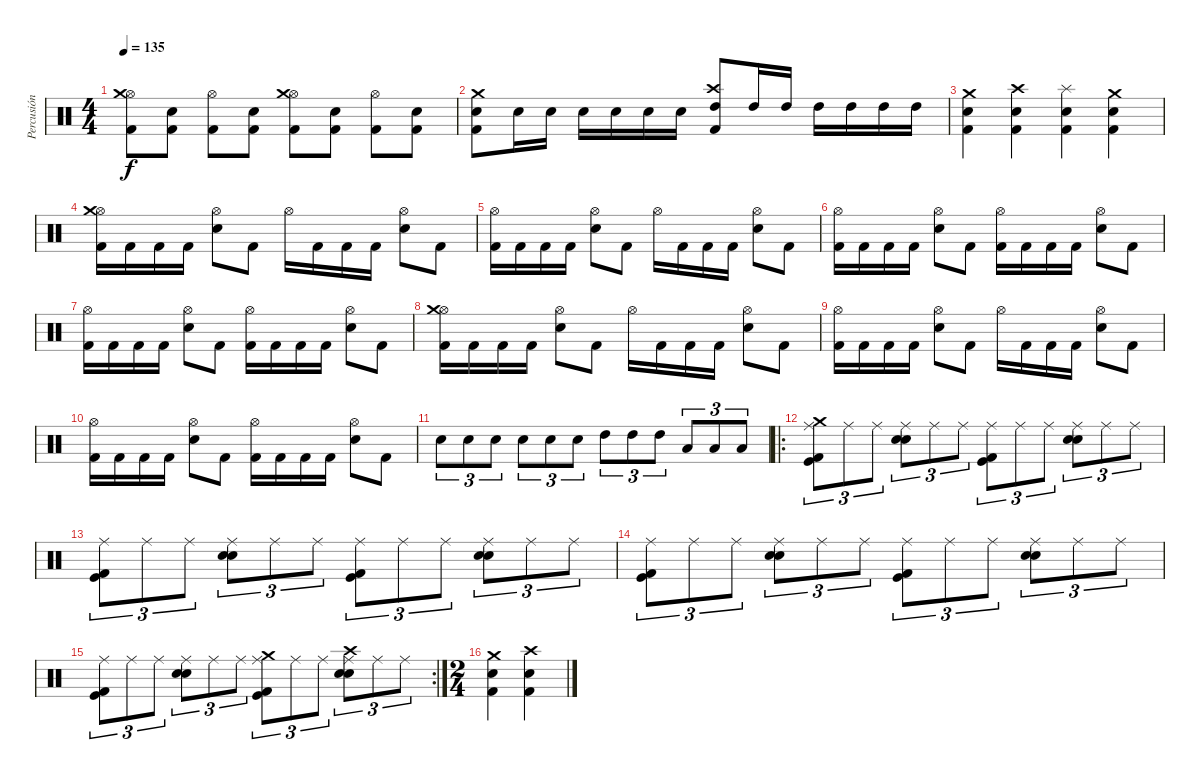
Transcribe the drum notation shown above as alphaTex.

\track ("Percusión" "Percusión") {instrument percussion}
\staff {score}
\articulation defaults
\ts (4 4)
\tempo 135
\clef neutral
\ks c
("Hi-Hat (open)" "Crash medium (hit)" "Kick (hit) 2").8{dy f} ("Snare (hit) 2" "Kick (hit) 2").8 ("Hi-Hat (open)" "Kick (hit) 2").8 ("Snare (hit) 2" "Kick (hit) 2").8 ("Hi-Hat (open)" "Crash medium (hit)" "Kick (hit) 2").8 ("Snare (hit) 2" "Kick (hit) 2").8 ("Hi-Hat (open)" "Kick (hit) 2").8 ("Snare (hit) 2" "Kick (hit) 2").8 |
("Crash medium (hit)" "Snare (hit) 2" "Kick (hit) 2").8 "Snare (hit) 2".16 "Snare (hit) 2".16 "Snare (hit) 2".16 "Snare (hit) 2".16 "Snare (hit) 2".16 "Snare (hit) 2".16 ("Crash high (hit)" "High Tom (hit)" "Kick (hit) 2").8 "High Tom (hit)".16 "High Tom (hit)".16 "High Tom (hit)".16 "High Tom (hit)".16 "High Tom (hit)".16 "High Tom (hit)".16 |
("Crash medium (hit)" "Snare (hit) 2" "Kick (hit) 2").4 ("Crash high (hit)" "Snare (hit) 2" "Kick (hit) 2").4 ("Splash (hit)" "Snare (hit) 2" "Kick (hit) 2").4 ("Crash medium (hit)" "Snare (hit) 2" "Kick (hit) 2").4 |
("Hi-Hat (open)" "Crash medium (hit)" "Kick (hit) 2").16 "Kick (hit) 2".16 "Kick (hit) 2".16 "Kick (hit) 2".16 ("Hi-Hat (open)" "Electric Snare (hit)").8 "Kick (hit) 2".8 "Hi-Hat (open)".16 "Kick (hit) 2".16 "Kick (hit) 2".16 "Kick (hit) 2".16 ("Hi-Hat (open)" "Electric Snare (hit)").8 "Kick (hit) 2".8 |
("Hi-Hat (open)" "Kick (hit) 2").16 "Kick (hit) 2".16 "Kick (hit) 2".16 "Kick (hit) 2".16 ("Hi-Hat (open)" "Electric Snare (hit)").8 "Kick (hit) 2".8 "Hi-Hat (open)".16 "Kick (hit) 2".16 "Kick (hit) 2".16 "Kick (hit) 2".16 ("Hi-Hat (open)" "Electric Snare (hit)").8 "Kick (hit) 2".8 |
("Hi-Hat (open)" "Kick (hit) 2").16 "Kick (hit) 2".16 "Kick (hit) 2".16 "Kick (hit) 2".16 ("Hi-Hat (open)" "Electric Snare (hit)").8 "Kick (hit) 2".8 ("Hi-Hat (open)" "Kick (hit) 2").16 "Kick (hit) 2".16 "Kick (hit) 2".16 "Kick (hit) 2".16 ("Hi-Hat (open)" "Electric Snare (hit)").8 "Kick (hit) 2".8 |
("Hi-Hat (open)" "Kick (hit) 2").16 "Kick (hit) 2".16 "Kick (hit) 2".16 "Kick (hit) 2".16 ("Hi-Hat (open)" "Electric Snare (hit)").8 "Kick (hit) 2".8 ("Hi-Hat (open)" "Kick (hit) 2").16 "Kick (hit) 2".16 "Kick (hit) 2".16 "Kick (hit) 2".16 ("Hi-Hat (open)" "Electric Snare (hit)").8 "Kick (hit) 2".8 |
("Hi-Hat (open)" "Crash medium (hit)" "Kick (hit) 2").16 "Kick (hit) 2".16 "Kick (hit) 2".16 "Kick (hit) 2".16 ("Hi-Hat (open)" "Electric Snare (hit)").8 "Kick (hit) 2".8 "Hi-Hat (open)".16 "Kick (hit) 2".16 "Kick (hit) 2".16 "Kick (hit) 2".16 ("Hi-Hat (open)" "Electric Snare (hit)").8 "Kick (hit) 2".8 |
("Hi-Hat (open)" "Kick (hit) 2").16 "Kick (hit) 2".16 "Kick (hit) 2".16 "Kick (hit) 2".16 ("Hi-Hat (open)" "Electric Snare (hit)").8 "Kick (hit) 2".8 "Hi-Hat (open)".16 "Kick (hit) 2".16 "Kick (hit) 2".16 "Kick (hit) 2".16 ("Hi-Hat (open)" "Electric Snare (hit)").8 "Kick (hit) 2".8 |
("Hi-Hat (open)" "Kick (hit) 2").16 "Kick (hit) 2".16 "Kick (hit) 2".16 "Kick (hit) 2".16 ("Hi-Hat (open)" "Electric Snare (hit)").8 "Kick (hit) 2".8 ("Hi-Hat (open)" "Kick (hit) 2").16 "Kick (hit) 2".16 "Kick (hit) 2".16 "Kick (hit) 2".16 ("Hi-Hat (open)" "Electric Snare (hit)").8 "Kick (hit) 2".8 |
"Snare (hit) 2".8{tu (3 2)} "Snare (hit) 2".8{tu (3 2)} "Snare (hit) 2".8{tu (3 2)} "Electric Snare (hit)".8{tu (3 2)} "Electric Snare (hit)".8{tu (3 2)} "Electric Snare (hit)".8{tu (3 2)} "High Tom (hit)".8{tu (3 2)} "High Tom (hit)".8{tu (3 2)} "High Tom (hit)".8{tu (3 2)} "Low Tom (hit)".8{tu (3 2)} "Low Tom (hit)".8{tu (3 2)} "Low Tom (hit)".8{tu (3 2)} |
\ro
("Ride (middle)" "Crash medium (hit)" "Kick (hit)" "Kick (hit) 2").8{tu (3 2)} "Ride (middle)".8{tu (3 2)} "Ride (middle)".8{tu (3 2)} ("Ride (middle)" "Snare (hit) 2" "Electric Snare (hit)").8{tu (3 2)} "Ride (middle)".8{tu (3 2)} "Ride (middle)".8{tu (3 2)} ("Ride (middle)" "Kick (hit)" "Kick (hit) 2").8{tu (3 2)} "Ride (middle)".8{tu (3 2)} "Ride (middle)".8{tu (3 2)} ("Ride (middle)" "Snare (hit) 2" "Electric Snare (hit)").8{tu (3 2)} "Ride (middle)".8{tu (3 2)} "Ride (middle)".8{tu (3 2)} |
("Ride (middle)" "Kick (hit)" "Kick (hit) 2").8{tu (3 2)} "Ride (middle)".8{tu (3 2)} "Ride (middle)".8{tu (3 2)} ("Ride (middle)" "Snare (hit) 2" "Electric Snare (hit)").8{tu (3 2)} "Ride (middle)".8{tu (3 2)} "Ride (middle)".8{tu (3 2)} ("Ride (middle)" "Kick (hit)" "Kick (hit) 2").8{tu (3 2)} "Ride (middle)".8{tu (3 2)} "Ride (middle)".8{tu (3 2)} ("Ride (middle)" "Snare (hit) 2" "Electric Snare (hit)").8{tu (3 2)} "Ride (middle)".8{tu (3 2)} "Ride (middle)".8{tu (3 2)} |
("Ride (middle)" "Kick (hit)" "Kick (hit) 2").8{tu (3 2)} "Ride (middle)".8{tu (3 2)} "Ride (middle)".8{tu (3 2)} ("Ride (middle)" "Snare (hit) 2" "Electric Snare (hit)").8{tu (3 2)} "Ride (middle)".8{tu (3 2)} "Ride (middle)".8{tu (3 2)} ("Ride (middle)" "Kick (hit)" "Kick (hit) 2").8{tu (3 2)} "Ride (middle)".8{tu (3 2)} "Ride (middle)".8{tu (3 2)} ("Ride (middle)" "Snare (hit) 2" "Electric Snare (hit)").8{tu (3 2)} "Ride (middle)".8{tu (3 2)} "Ride (middle)".8{tu (3 2)} |
\rc 2
("Ride (middle)" "Kick (hit)" "Kick (hit) 2").8{tu (3 2)} "Ride (middle)".8{tu (3 2)} "Ride (middle)".8{tu (3 2)} ("Ride (middle)" "Snare (hit) 2" "Electric Snare (hit)").8{tu (3 2)} "Ride (middle)".8{tu (3 2)} "Ride (middle)".8{tu (3 2)} ("Crash medium (hit)" "Ride (middle)" "Kick (hit)" "Kick (hit) 2").8{tu (3 2)} "Ride (middle)".8{tu (3 2)} "Ride (middle)".8{tu (3 2)} ("Crash high (hit)" "Ride (middle)" "Snare (hit) 2" "Electric Snare (hit)").8{tu (3 2)} "Ride (middle)".8{tu (3 2)} "Ride (middle)".8{tu (3 2)} |
\ts (2 4)
("Crash medium (hit)" "Snare (hit) 2" "Kick (hit) 2").4 ("Crash high (hit)" "Snare (hit) 2" "Kick (hit) 2").4
